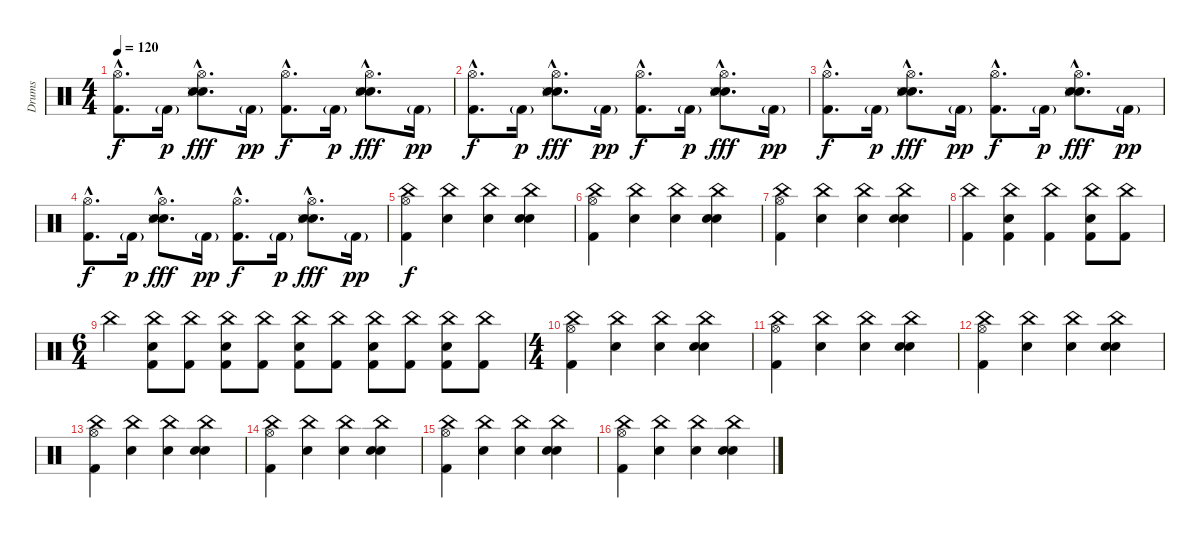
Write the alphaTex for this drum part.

\track ("Drums" "Drums") {instrument percussion}
\staff {score}
\articulation defaults
\ts (4 4)
\tempo 120
\clef neutral
\ks c
("Kick (hit) 2"{hac} "Hi-Hat (open)"{hac}).8{d dy f} "Kick (hit) 2"{g}.16{dy p} ("Hand Clap (hit)"{hac} "Electric Snare (hit)"{hac} "Hi-Hat (open)"{hac} "Snare (side stick) 3"{hac}).8{d dy fff} "Kick (hit) 2"{g}.16{dy pp} ("Kick (hit) 2"{hac} "Hi-Hat (open)"{hac}).8{d dy f} "Kick (hit) 2"{g}.16{dy p} ("Hand Clap (hit)"{hac} "Electric Snare (hit)"{hac} "Hi-Hat (open)"{hac} "Snare (side stick) 3"{hac}).8{d dy fff} "Kick (hit) 2"{g}.16{dy pp} |
("Kick (hit) 2"{hac} "Hi-Hat (open)"{hac}).8{d dy f} "Kick (hit) 2"{g}.16{dy p} ("Hand Clap (hit)"{hac} "Electric Snare (hit)"{hac} "Hi-Hat (open)"{hac} "Snare (side stick) 3"{hac}).8{d dy fff} "Kick (hit) 2"{g}.16{dy pp} ("Kick (hit) 2"{hac} "Hi-Hat (open)"{hac}).8{d dy f} "Kick (hit) 2"{g}.16{dy p} ("Hand Clap (hit)"{hac} "Electric Snare (hit)"{hac} "Hi-Hat (open)"{hac} "Snare (side stick) 3"{hac}).8{d dy fff} "Kick (hit) 2"{g}.16{dy pp} |
("Kick (hit) 2"{hac} "Hi-Hat (open)"{hac}).8{d dy f} "Kick (hit) 2"{g}.16{dy p} ("Hand Clap (hit)"{hac} "Electric Snare (hit)"{hac} "Hi-Hat (open)"{hac} "Snare (side stick) 3"{hac}).8{d dy fff} "Kick (hit) 2"{g}.16{dy pp} ("Kick (hit) 2"{hac} "Hi-Hat (open)"{hac}).8{d dy f} "Kick (hit) 2"{g}.16{dy p} ("Hand Clap (hit)"{hac} "Electric Snare (hit)"{hac} "Hi-Hat (open)"{hac} "Snare (side stick) 3"{hac}).8{d dy fff} "Kick (hit) 2"{g}.16{dy pp} |
("Kick (hit) 2"{hac} "Hi-Hat (open)"{hac}).8{d dy f} "Kick (hit) 2"{g}.16{dy p} ("Hand Clap (hit)"{hac} "Electric Snare (hit)"{hac} "Hi-Hat (open)"{hac} "Snare (side stick) 3"{hac}).8{d dy fff} "Kick (hit) 2"{g}.16{dy pp} ("Kick (hit) 2"{hac} "Hi-Hat (open)"{hac}).8{d dy f} "Kick (hit) 2"{g}.16{dy p} ("Hand Clap (hit)"{hac} "Electric Snare (hit)"{hac} "Hi-Hat (open)"{hac} "Snare (side stick) 3"{hac}).8{d dy fff} "Kick (hit) 2"{g}.16{dy pp} |
("China (hit)" "Kick (hit) 2" "Hi-Hat (open)").4{dy f} ("China (hit)" "Electric Snare (hit)").4 ("China (hit)" "Electric Snare (hit)").4 ("China (hit)" "Electric Snare (hit)" "Hand Clap (hit)").4 |
("China (hit)" "Kick (hit) 2" "Hi-Hat (open)").4 ("China (hit)" "Electric Snare (hit)").4 ("China (hit)" "Electric Snare (hit)").4 ("China (hit)" "Electric Snare (hit)" "Hand Clap (hit)").4 |
("China (hit)" "Kick (hit) 2" "Hi-Hat (open)").4 ("China (hit)" "Electric Snare (hit)").4 ("China (hit)" "Electric Snare (hit)").4 ("China (hit)" "Electric Snare (hit)" "Hand Clap (hit)").4 |
("China (hit)" "Kick (hit) 2").4 ("China (hit)" "Electric Snare (hit)" "Kick (hit) 2").4 ("China (hit)" "Kick (hit) 2").4 ("China (hit)" "Electric Snare (hit)" "Kick (hit) 2").8 ("China (hit)" "Kick (hit) 2").8 |
\ts (6 4)
"China (hit)".4 ("China (hit)" "Kick (hit) 2" "Electric Snare (hit)").8 ("China (hit)" "Kick (hit) 2").8 ("China (hit)" "Kick (hit) 2" "Electric Snare (hit)").8 ("China (hit)" "Kick (hit) 2").8 ("China (hit)" "Kick (hit) 2" "Electric Snare (hit)").8 ("China (hit)" "Kick (hit) 2").8 ("China (hit)" "Kick (hit) 2" "Electric Snare (hit)").8 ("China (hit)" "Kick (hit) 2").8 ("China (hit)" "Kick (hit) 2" "Electric Snare (hit)").8 ("China (hit)" "Kick (hit) 2").8 |
\ts (4 4)
("China (hit)" "Kick (hit) 2" "Hi-Hat (open)").4 ("China (hit)" "Electric Snare (hit)").4 ("China (hit)" "Electric Snare (hit)").4 ("China (hit)" "Electric Snare (hit)" "Hand Clap (hit)").4 |
("China (hit)" "Kick (hit) 2" "Hi-Hat (open)").4 ("China (hit)" "Electric Snare (hit)").4 ("China (hit)" "Electric Snare (hit)").4 ("China (hit)" "Electric Snare (hit)" "Hand Clap (hit)").4 |
("China (hit)" "Kick (hit) 2" "Hi-Hat (open)").4 ("China (hit)" "Electric Snare (hit)").4 ("China (hit)" "Electric Snare (hit)").4 ("China (hit)" "Electric Snare (hit)" "Hand Clap (hit)").4 |
("China (hit)" "Kick (hit) 2" "Hi-Hat (open)").4 ("China (hit)" "Electric Snare (hit)").4 ("China (hit)" "Electric Snare (hit)").4 ("China (hit)" "Electric Snare (hit)" "Hand Clap (hit)").4 |
("China (hit)" "Kick (hit) 2" "Hi-Hat (open)").4 ("China (hit)" "Electric Snare (hit)").4 ("China (hit)" "Electric Snare (hit)").4 ("China (hit)" "Electric Snare (hit)" "Hand Clap (hit)").4 |
("China (hit)" "Kick (hit) 2" "Hi-Hat (open)").4 ("China (hit)" "Electric Snare (hit)").4 ("China (hit)" "Electric Snare (hit)").4 ("China (hit)" "Electric Snare (hit)" "Hand Clap (hit)").4 |
("China (hit)" "Kick (hit) 2" "Hi-Hat (open)").4 ("China (hit)" "Electric Snare (hit)").4 ("China (hit)" "Electric Snare (hit)").4 ("China (hit)" "Electric Snare (hit)" "Hand Clap (hit)").4
